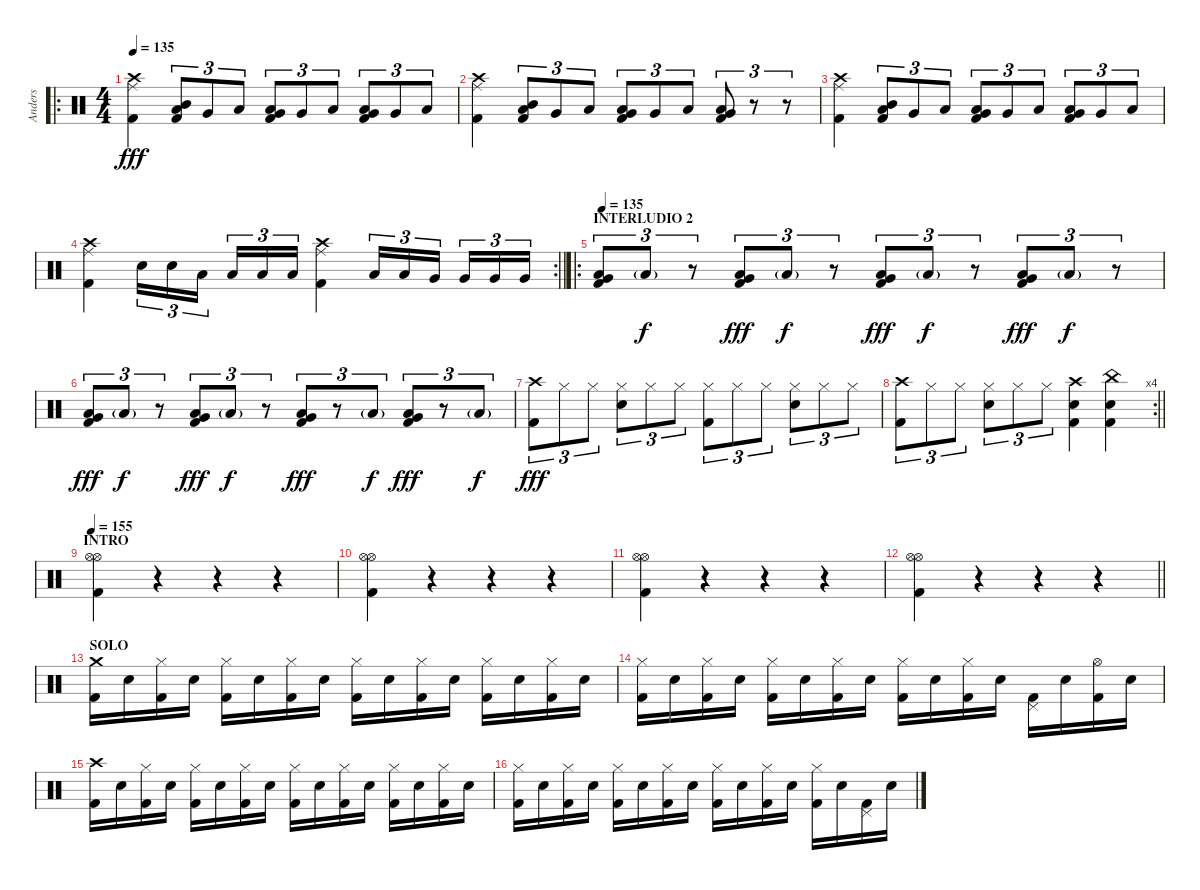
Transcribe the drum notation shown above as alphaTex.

\track ("Anders" "Anders") {instrument percussion}
\staff {score}
\articulation defaults
\ro
\ts (4 4)
\tempo 135
\clef neutral
\ks c
("Ride (middle)" "Crash high (hit)" "Kick (hit) 2").4{dy fff} ("Mid Tom (hit)" "Low Tom (hit)" "Kick (hit) 2").8{tu (3 2)} "Very Low Tom (hit)".8{tu (3 2)} "Low Floor Tom (hit)".8{tu (3 2)} ("Low Tom (hit)" "Very Low Tom (hit)" "Kick (hit) 2").8{tu (3 2)} "Very Low Tom (hit)".8{tu (3 2)} "Low Floor Tom (hit)".8{tu (3 2)} ("Low Tom (hit)" "Very Low Tom (hit)" "Kick (hit) 2").8{tu (3 2)} "Very Low Tom (hit)".8{tu (3 2)} "Low Floor Tom (hit)".8{tu (3 2)} |
("Ride (middle)" "Crash high (hit)" "Kick (hit) 2").4 ("Mid Tom (hit)" "Low Tom (hit)" "Kick (hit) 2").8{tu (3 2)} "Very Low Tom (hit)".8{tu (3 2)} "Low Floor Tom (hit)".8{tu (3 2)} ("Low Tom (hit)" "Very Low Tom (hit)" "Kick (hit) 2").8{tu (3 2)} "Very Low Tom (hit)".8{tu (3 2)} "Low Floor Tom (hit)".8{tu (3 2)} ("Low Tom (hit)" "Very Low Tom (hit)" "Kick (hit) 2").8{tu (3 2)} r.8{tu (3 2)} r.8{tu (3 2)} |
("Ride (middle)" "Crash high (hit)" "Kick (hit) 2").4 ("Mid Tom (hit)" "Low Tom (hit)" "Kick (hit) 2").8{tu (3 2)} "Very Low Tom (hit)".8{tu (3 2)} "Low Floor Tom (hit)".8{tu (3 2)} ("Low Tom (hit)" "Very Low Tom (hit)" "Kick (hit) 2").8{tu (3 2)} "Very Low Tom (hit)".8{tu (3 2)} "Low Floor Tom (hit)".8{tu (3 2)} ("Low Tom (hit)" "Very Low Tom (hit)" "Kick (hit) 2").8{tu (3 2)} "Very Low Tom (hit)".8{tu (3 2)} "Low Floor Tom (hit)".8{tu (3 2)} |
\rc 2
\barLineRight lightlight
("Ride (middle)" "Crash high (hit)" "Kick (hit) 2").4 "Snare (hit) 2".16{tu (3 2)} "Snare (hit) 2".16{tu (3 2)} "Low Tom (hit)".16{tu (3 2)} "Low Tom (hit)".16{tu (3 2)} "Low Tom (hit)".16{tu (3 2)} "Low Tom (hit)".16{tu (3 2)} ("Ride (middle)" "Crash high (hit)" "Kick (hit) 2").4 "Low Tom (hit)".16{tu (3 2)} "Low Tom (hit)".16{tu (3 2)} "Very Low Tom (hit)".16{tu (3 2)} "Very Low Tom (hit)".16{tu (3 2)} "Very Low Tom (hit)".16{tu (3 2)} "Very Low Tom (hit)".16{tu (3 2)} |
\ro
\section ("" "INTERLUDIO 2")
\tempo 135
("Very Low Tom (hit)" "Low Tom (hit)" "Kick (hit) 2").8{tu (3 2)} "Low Tom (hit)"{g}.8{tu (3 2) dy f} r.8{tu (3 2)} ("Very Low Tom (hit)" "Low Tom (hit)" "Kick (hit) 2").8{tu (3 2) dy fff} "Low Tom (hit)"{g}.8{tu (3 2) dy f} r.8{tu (3 2)} ("Very Low Tom (hit)" "Low Tom (hit)" "Kick (hit) 2").8{tu (3 2) dy fff} "Low Tom (hit)"{g}.8{tu (3 2) dy f} r.8{tu (3 2)} ("Very Low Tom (hit)" "Low Tom (hit)" "Kick (hit) 2").8{tu (3 2) dy fff} "Low Tom (hit)"{g}.8{tu (3 2) dy f} r.8{tu (3 2)} |
("Very Low Tom (hit)" "Low Tom (hit)" "Kick (hit) 2").8{tu (3 2) dy fff} "Low Tom (hit)"{g}.8{tu (3 2) dy f} r.8{tu (3 2)} ("Very Low Tom (hit)" "Low Tom (hit)" "Kick (hit) 2").8{tu (3 2) dy fff} "Low Tom (hit)"{g}.8{tu (3 2) dy f} r.8{tu (3 2)} ("Very Low Tom (hit)" "Low Tom (hit)" "Kick (hit) 2").8{tu (3 2) dy fff} r.8{tu (3 2)} "Low Tom (hit)"{g}.8{tu (3 2) dy f} ("Very Low Tom (hit)" "Low Tom (hit)" "Kick (hit) 2").8{tu (3 2) dy fff} r.8{tu (3 2)} "Low Tom (hit)"{g}.8{tu (3 2) dy f} |
("Crash high (hit)" "Kick (hit) 2").8{tu (3 2) dy fff} "Hi-Hat (closed)".8{tu (3 2)} "Hi-Hat (closed)".8{tu (3 2)} ("Hi-Hat (closed)" "Snare (hit) 2").8{tu (3 2)} "Hi-Hat (closed)".8{tu (3 2)} "Hi-Hat (closed)".8{tu (3 2)} ("Hi-Hat (closed)" "Kick (hit) 2").8{tu (3 2)} "Hi-Hat (closed)".8{tu (3 2)} "Hi-Hat (closed)".8{tu (3 2)} ("Hi-Hat (closed)" "Snare (hit) 2").8{tu (3 2)} "Hi-Hat (closed)".8{tu (3 2)} "Hi-Hat (closed)".8{tu (3 2)} |
\rc 4
\barLineRight lightlight
("Crash high (hit)" "Kick (hit) 2").8{tu (3 2)} "Hi-Hat (closed)".8{tu (3 2)} "Hi-Hat (closed)".8{tu (3 2)} ("Hi-Hat (closed)" "Snare (hit) 2").8{tu (3 2)} "Hi-Hat (closed)".8{tu (3 2)} "Hi-Hat (closed)".8{tu (3 2)} ("Crash high (hit)" "Snare (hit) 2" "Kick (hit) 2").4 ("China (hit)" "Snare (hit) 2" "Kick (hit) 2").4 |
\section ("" "INTRO")
\tempo 155
("Hi-Hat (open)" "Hi-Hat (open)" "Kick (hit) 2").4 r.4 r.4 r.4 |
("Hi-Hat (open)" "Hi-Hat (open)" "Kick (hit) 2").4 r.4 r.4 r.4 |
("Hi-Hat (open)" "Hi-Hat (open)" "Kick (hit) 2").4 r.4 r.4 r.4 |
\barLineRight lightlight
("Hi-Hat (open)" "Hi-Hat (open)" "Kick (hit) 2").4 r.4 r.4 r.4 |
\section ("" "SOLO")
("Crash medium (hit)" "Kick (hit) 2").16 "Snare (hit) 2".16 ("Hi-Hat (closed)" "Kick (hit) 2").16 "Snare (hit) 2".16 ("Hi-Hat (closed)" "Kick (hit) 2").16 "Snare (hit) 2".16 ("Hi-Hat (closed)" "Kick (hit) 2").16 "Snare (hit) 2".16 ("Hi-Hat (closed)" "Kick (hit) 2").16 "Snare (hit) 2".16 ("Hi-Hat (closed)" "Kick (hit) 2").16 "Snare (hit) 2".16 ("Hi-Hat (closed)" "Kick (hit) 2").16 "Snare (hit) 2".16 ("Hi-Hat (closed)" "Kick (hit) 2").16 "Snare (hit) 2".16 |
("Hi-Hat (closed)" "Kick (hit) 2").16 "Snare (hit) 2".16 ("Hi-Hat (closed)" "Kick (hit) 2").16 "Snare (hit) 2".16 ("Hi-Hat (closed)" "Kick (hit) 2").16 "Snare (hit) 2".16 ("Hi-Hat (closed)" "Kick (hit) 2").16 "Snare (hit) 2".16 ("Hi-Hat (closed)" "Kick (hit) 2").16 "Snare (hit) 2".16 ("Hi-Hat (closed)" "Kick (hit) 2").16 "Snare (hit) 2".16 ("Pedal Hi-Hat (hit)" "Kick (hit) 2").16 "Snare (hit) 2".16 ("Hi-Hat (open)" "Kick (hit) 2").16 "Snare (hit) 2".16 |
("Crash high (hit)" "Kick (hit) 2").16 "Snare (hit) 2".16 ("Hi-Hat (closed)" "Kick (hit) 2").16 "Snare (hit) 2".16 ("Hi-Hat (closed)" "Kick (hit) 2").16 "Snare (hit) 2".16 ("Hi-Hat (closed)" "Kick (hit) 2").16 "Snare (hit) 2".16 ("Hi-Hat (closed)" "Kick (hit) 2").16 "Snare (hit) 2".16 ("Hi-Hat (closed)" "Kick (hit) 2").16 "Snare (hit) 2".16 ("Hi-Hat (closed)" "Kick (hit) 2").16 "Snare (hit) 2".16 ("Hi-Hat (closed)" "Kick (hit) 2").16 "Snare (hit) 2".16 |
("Hi-Hat (closed)" "Kick (hit) 2").16 "Snare (hit) 2".16 ("Hi-Hat (closed)" "Kick (hit) 2").16 "Snare (hit) 2".16 ("Hi-Hat (closed)" "Kick (hit) 2").16 "Snare (hit) 2".16 ("Hi-Hat (closed)" "Kick (hit) 2").16 "Snare (hit) 2".16 ("Hi-Hat (closed)" "Kick (hit) 2").16 "Snare (hit) 2".16 ("Hi-Hat (closed)" "Kick (hit) 2").16 "Snare (hit) 2".16 ("Hi-Hat (closed)" "Kick (hit) 2").16 "Snare (hit) 2".16 ("Pedal Hi-Hat (hit)" "Kick (hit) 2").16 "Snare (hit) 2".16
